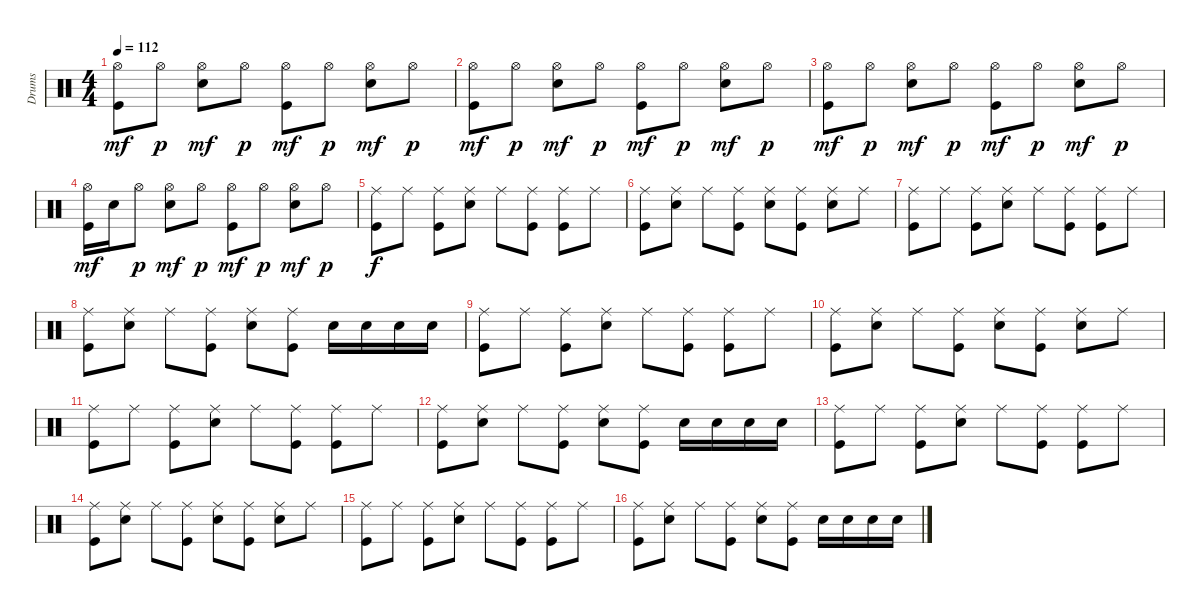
\track ("Drums" "Drums") {instrument percussion}
\staff {score}
\articulation defaults
\ts (4 4)
\tempo 112
\clef neutral
\ks c
("Hi-Hat (open)" "Kick (hit)").8{dy mf} "Hi-Hat (open)".8{dy p} ("Hi-Hat (open)" "Snare (hit) 2").8{dy mf} "Hi-Hat (open)".8{dy p} ("Hi-Hat (open)" "Kick (hit)").8{dy mf} "Hi-Hat (open)".8{dy p} ("Hi-Hat (open)" "Snare (hit) 2").8{dy mf} "Hi-Hat (open)".8{dy p} |
("Hi-Hat (open)" "Kick (hit)").8{dy mf} "Hi-Hat (open)".8{dy p} ("Hi-Hat (open)" "Snare (hit) 2").8{dy mf} "Hi-Hat (open)".8{dy p} ("Hi-Hat (open)" "Kick (hit)").8{dy mf} "Hi-Hat (open)".8{dy p} ("Hi-Hat (open)" "Snare (hit) 2").8{dy mf} "Hi-Hat (open)".8{dy p} |
("Hi-Hat (open)" "Kick (hit)").8{dy mf} "Hi-Hat (open)".8{dy p} ("Hi-Hat (open)" "Snare (hit) 2").8{dy mf} "Hi-Hat (open)".8{dy p} ("Hi-Hat (open)" "Kick (hit)").8{dy mf} "Hi-Hat (open)".8{dy p} ("Hi-Hat (open)" "Snare (hit) 2").8{dy mf} "Hi-Hat (open)".8{dy p} |
("Hi-Hat (open)" "Kick (hit)").16{dy mf} "Snare (hit) 2".16 "Hi-Hat (open)".8{dy p} ("Hi-Hat (open)" "Snare (hit) 2").8{dy mf} "Hi-Hat (open)".8{dy p} ("Hi-Hat (open)" "Kick (hit)").8{dy mf} "Hi-Hat (open)".8{dy p} ("Hi-Hat (open)" "Snare (hit) 2").8{dy mf} "Hi-Hat (open)".8{dy p} |
("Ride (middle)" "Kick (hit)").8{dy f} "Ride (middle)".8 ("Ride (middle)" "Kick (hit)").8 ("Ride (middle)" "Snare (hit) 2").8 "Ride (middle)".8 ("Ride (middle)" "Kick (hit)").8 ("Ride (middle)" "Kick (hit)").8 "Ride (middle)".8 |
("Ride (middle)" "Kick (hit)").8 ("Ride (middle)" "Snare (hit) 2").8 "Ride (middle)".8 ("Ride (middle)" "Kick (hit)").8 ("Ride (middle)" "Snare (hit) 2").8 ("Ride (middle)" "Kick (hit)").8 ("Ride (middle)" "Snare (hit) 2").8 "Ride (middle)".8 |
("Ride (middle)" "Kick (hit)").8 "Ride (middle)".8 ("Ride (middle)" "Kick (hit)").8 ("Ride (middle)" "Snare (hit) 2").8 "Ride (middle)".8 ("Ride (middle)" "Kick (hit)").8 ("Ride (middle)" "Kick (hit)").8 "Ride (middle)".8 |
("Ride (middle)" "Kick (hit)").8 ("Ride (middle)" "Snare (hit) 2").8 "Ride (middle)".8 ("Ride (middle)" "Kick (hit)").8 ("Ride (middle)" "Snare (hit) 2").8 ("Ride (middle)" "Kick (hit)").8 "Snare (hit) 2".16 "Snare (hit) 2".16 "Snare (hit) 2".16 "Snare (hit) 2".16 |
("Ride (middle)" "Kick (hit)").8 "Ride (middle)".8 ("Ride (middle)" "Kick (hit)").8 ("Ride (middle)" "Snare (hit) 2").8 "Ride (middle)".8 ("Ride (middle)" "Kick (hit)").8 ("Ride (middle)" "Kick (hit)").8 "Ride (middle)".8 |
("Ride (middle)" "Kick (hit)").8 ("Ride (middle)" "Snare (hit) 2").8 "Ride (middle)".8 ("Ride (middle)" "Kick (hit)").8 ("Ride (middle)" "Snare (hit) 2").8 ("Ride (middle)" "Kick (hit)").8 ("Ride (middle)" "Snare (hit) 2").8 "Ride (middle)".8 |
("Ride (middle)" "Kick (hit)").8 "Ride (middle)".8 ("Ride (middle)" "Kick (hit)").8 ("Ride (middle)" "Snare (hit) 2").8 "Ride (middle)".8 ("Ride (middle)" "Kick (hit)").8 ("Ride (middle)" "Kick (hit)").8 "Ride (middle)".8 |
("Ride (middle)" "Kick (hit)").8 ("Ride (middle)" "Snare (hit) 2").8 "Ride (middle)".8 ("Ride (middle)" "Kick (hit)").8 ("Ride (middle)" "Snare (hit) 2").8 ("Ride (middle)" "Kick (hit)").8 "Snare (hit) 2".16 "Snare (hit) 2".16 "Snare (hit) 2".16 "Snare (hit) 2".16 |
("Ride (middle)" "Kick (hit)").8 "Ride (middle)".8 ("Ride (middle)" "Kick (hit)").8 ("Ride (middle)" "Snare (hit) 2").8 "Ride (middle)".8 ("Ride (middle)" "Kick (hit)").8 ("Ride (middle)" "Kick (hit)").8 "Ride (middle)".8 |
("Ride (middle)" "Kick (hit)").8 ("Ride (middle)" "Snare (hit) 2").8 "Ride (middle)".8 ("Ride (middle)" "Kick (hit)").8 ("Ride (middle)" "Snare (hit) 2").8 ("Ride (middle)" "Kick (hit)").8 ("Ride (middle)" "Snare (hit) 2").8 "Ride (middle)".8 |
("Ride (middle)" "Kick (hit)").8 "Ride (middle)".8 ("Ride (middle)" "Kick (hit)").8 ("Ride (middle)" "Snare (hit) 2").8 "Ride (middle)".8 ("Ride (middle)" "Kick (hit)").8 ("Ride (middle)" "Kick (hit)").8 "Ride (middle)".8 |
("Ride (middle)" "Kick (hit)").8 ("Ride (middle)" "Snare (hit) 2").8 "Ride (middle)".8 ("Ride (middle)" "Kick (hit)").8 ("Ride (middle)" "Snare (hit) 2").8 ("Ride (middle)" "Kick (hit)").8 "Snare (hit) 2".16 "Snare (hit) 2".16 "Snare (hit) 2".16 "Snare (hit) 2".16
